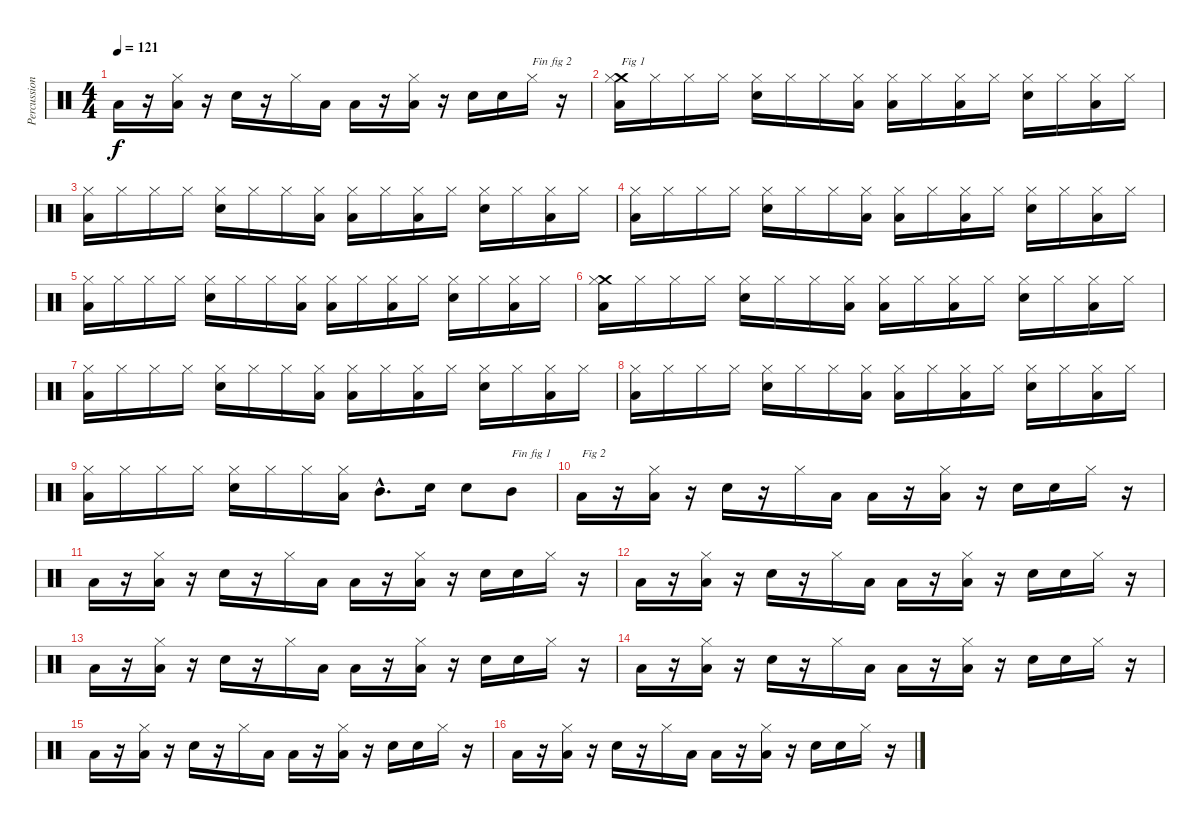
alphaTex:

\track ("Percussions" "Percussion") {instrument percussion}
\staff {score}
\articulation defaults
\ts (4 4)
\tempo 121
\clef neutral
\ks c "Low Floor Tom (hit)".16{dy f}
r.16 ("Low Floor Tom (hit)" "Hi-Hat (closed)").16 r.16 "Electric Snare (hit)".16 r.16 "Hi-Hat (closed)".16 "Low Floor Tom (hit)".16 "Low Floor Tom (hit)".16 r.16 ("Low Floor Tom (hit)" "Hi-Hat (closed)").16 r.16 "Electric Snare (hit)".16 "Electric Snare (hit)".16 "Hi-Hat (closed)".16{txt "Fin fig 2"} r.16 |
("Low Floor Tom (hit)" "Crash medium (hit)" "Hi-Hat (closed)").16{txt "Fig 1"} "Hi-Hat (closed)".16 "Hi-Hat (closed)".16 "Hi-Hat (closed)".16 ("Electric Snare (hit)" "Hi-Hat (closed)").16 "Hi-Hat (closed)".16 "Hi-Hat (closed)".16 ("Low Floor Tom (hit)" "Hi-Hat (closed)").16 ("Low Floor Tom (hit)" "Hi-Hat (closed)").16 "Hi-Hat (closed)".16 ("Low Floor Tom (hit)" "Hi-Hat (closed)").16 "Hi-Hat (closed)".16 ("Electric Snare (hit)" "Hi-Hat (closed)").16 "Hi-Hat (closed)".16 ("Low Floor Tom (hit)" "Hi-Hat (closed)").16 "Hi-Hat (closed)".16 |
("Low Floor Tom (hit)" "Hi-Hat (closed)").16 "Hi-Hat (closed)".16 "Hi-Hat (closed)".16 "Hi-Hat (closed)".16 ("Electric Snare (hit)" "Hi-Hat (closed)").16 "Hi-Hat (closed)".16 "Hi-Hat (closed)".16 ("Low Floor Tom (hit)" "Hi-Hat (closed)").16 ("Low Floor Tom (hit)" "Hi-Hat (closed)").16 "Hi-Hat (closed)".16 ("Low Floor Tom (hit)" "Hi-Hat (closed)").16 "Hi-Hat (closed)".16 ("Electric Snare (hit)" "Hi-Hat (closed)").16 "Hi-Hat (closed)".16 ("Low Floor Tom (hit)" "Hi-Hat (closed)").16 "Hi-Hat (closed)".16 |
("Low Floor Tom (hit)" "Hi-Hat (closed)").16 "Hi-Hat (closed)".16 "Hi-Hat (closed)".16 "Hi-Hat (closed)".16 ("Electric Snare (hit)" "Hi-Hat (closed)").16 "Hi-Hat (closed)".16 "Hi-Hat (closed)".16 ("Low Floor Tom (hit)" "Hi-Hat (closed)").16 ("Low Floor Tom (hit)" "Hi-Hat (closed)").16 "Hi-Hat (closed)".16 ("Low Floor Tom (hit)" "Hi-Hat (closed)").16 "Hi-Hat (closed)".16 ("Electric Snare (hit)" "Hi-Hat (closed)").16 "Hi-Hat (closed)".16 ("Low Floor Tom (hit)" "Hi-Hat (closed)").16 "Hi-Hat (closed)".16 |
("Low Floor Tom (hit)" "Hi-Hat (closed)").16 "Hi-Hat (closed)".16 "Hi-Hat (closed)".16 "Hi-Hat (closed)".16 ("Electric Snare (hit)" "Hi-Hat (closed)").16 "Hi-Hat (closed)".16 "Hi-Hat (closed)".16 ("Low Floor Tom (hit)" "Hi-Hat (closed)").16 ("Low Floor Tom (hit)" "Hi-Hat (closed)").16 "Hi-Hat (closed)".16 ("Low Floor Tom (hit)" "Hi-Hat (closed)").16 "Hi-Hat (closed)".16 ("Electric Snare (hit)" "Hi-Hat (closed)").16 "Hi-Hat (closed)".16 ("Low Floor Tom (hit)" "Hi-Hat (closed)").16 "Hi-Hat (closed)".16 |
("Low Floor Tom (hit)" "Crash medium (hit)" "Hi-Hat (closed)").16 "Hi-Hat (closed)".16 "Hi-Hat (closed)".16 "Hi-Hat (closed)".16 ("Electric Snare (hit)" "Hi-Hat (closed)").16 "Hi-Hat (closed)".16 "Hi-Hat (closed)".16 ("Low Floor Tom (hit)" "Hi-Hat (closed)").16 ("Low Floor Tom (hit)" "Hi-Hat (closed)").16 "Hi-Hat (closed)".16 ("Low Floor Tom (hit)" "Hi-Hat (closed)").16 "Hi-Hat (closed)".16 ("Electric Snare (hit)" "Hi-Hat (closed)").16 "Hi-Hat (closed)".16 ("Low Floor Tom (hit)" "Hi-Hat (closed)").16 "Hi-Hat (closed)".16 |
("Low Floor Tom (hit)" "Hi-Hat (closed)").16 "Hi-Hat (closed)".16 "Hi-Hat (closed)".16 "Hi-Hat (closed)".16 ("Electric Snare (hit)" "Hi-Hat (closed)").16 "Hi-Hat (closed)".16 "Hi-Hat (closed)".16 ("Low Floor Tom (hit)" "Hi-Hat (closed)").16 ("Low Floor Tom (hit)" "Hi-Hat (closed)").16 "Hi-Hat (closed)".16 ("Low Floor Tom (hit)" "Hi-Hat (closed)").16 "Hi-Hat (closed)".16 ("Electric Snare (hit)" "Hi-Hat (closed)").16 "Hi-Hat (closed)".16 ("Low Floor Tom (hit)" "Hi-Hat (closed)").16 "Hi-Hat (closed)".16 |
("Low Floor Tom (hit)" "Hi-Hat (closed)").16 "Hi-Hat (closed)".16 "Hi-Hat (closed)".16 "Hi-Hat (closed)".16 ("Electric Snare (hit)" "Hi-Hat (closed)").16 "Hi-Hat (closed)".16 "Hi-Hat (closed)".16 ("Low Floor Tom (hit)" "Hi-Hat (closed)").16 ("Low Floor Tom (hit)" "Hi-Hat (closed)").16 "Hi-Hat (closed)".16 ("Low Floor Tom (hit)" "Hi-Hat (closed)").16 "Hi-Hat (closed)".16 ("Electric Snare (hit)" "Hi-Hat (closed)").16 "Hi-Hat (closed)".16 ("Low Floor Tom (hit)" "Hi-Hat (closed)").16 "Hi-Hat (closed)".16 |
("Low Floor Tom (hit)" "Hi-Hat (closed)").16 "Hi-Hat (closed)".16 "Hi-Hat (closed)".16 "Hi-Hat (closed)".16 ("Electric Snare (hit)" "Hi-Hat (closed)").16 "Hi-Hat (closed)".16 "Hi-Hat (closed)".16 ("Low Floor Tom (hit)" "Hi-Hat (closed)").16 "Mid Tom (hit)"{hac}.8{d} "Electric Snare (hit)".16 "Electric Snare (hit)".8 "Mid Tom (hit)".8{txt "Fin fig 1"} |
"Low Floor Tom (hit)".16{txt "Fig 2"} r.16 ("Low Floor Tom (hit)" "Hi-Hat (closed)").16 r.16 "Electric Snare (hit)".16 r.16 "Hi-Hat (closed)".16 "Low Floor Tom (hit)".16 "Low Floor Tom (hit)".16 r.16 ("Low Floor Tom (hit)" "Hi-Hat (closed)").16 r.16 "Electric Snare (hit)".16 "Electric Snare (hit)".16 "Hi-Hat (closed)".16 r.16 |
"Low Floor Tom (hit)".16 r.16 ("Low Floor Tom (hit)" "Hi-Hat (closed)").16 r.16 "Electric Snare (hit)".16 r.16 "Hi-Hat (closed)".16 "Low Floor Tom (hit)".16 "Low Floor Tom (hit)".16 r.16 ("Low Floor Tom (hit)" "Hi-Hat (closed)").16 r.16 "Electric Snare (hit)".16 "Electric Snare (hit)".16 "Hi-Hat (closed)".16 r.16 |
"Low Floor Tom (hit)".16 r.16 ("Low Floor Tom (hit)" "Hi-Hat (closed)").16 r.16 "Electric Snare (hit)".16 r.16 "Hi-Hat (closed)".16 "Low Floor Tom (hit)".16 "Low Floor Tom (hit)".16 r.16 ("Low Floor Tom (hit)" "Hi-Hat (closed)").16 r.16 "Electric Snare (hit)".16 "Electric Snare (hit)".16 "Hi-Hat (closed)".16 r.16 |
"Low Floor Tom (hit)".16 r.16 ("Low Floor Tom (hit)" "Hi-Hat (closed)").16 r.16 "Electric Snare (hit)".16 r.16 "Hi-Hat (closed)".16 "Low Floor Tom (hit)".16 "Low Floor Tom (hit)".16 r.16 ("Low Floor Tom (hit)" "Hi-Hat (closed)").16 r.16 "Electric Snare (hit)".16 "Electric Snare (hit)".16 "Hi-Hat (closed)".16 r.16 |
"Low Floor Tom (hit)".16 r.16 ("Low Floor Tom (hit)" "Hi-Hat (closed)").16 r.16 "Electric Snare (hit)".16 r.16 "Hi-Hat (closed)".16 "Low Floor Tom (hit)".16 "Low Floor Tom (hit)".16 r.16 ("Low Floor Tom (hit)" "Hi-Hat (closed)").16 r.16 "Electric Snare (hit)".16 "Electric Snare (hit)".16 "Hi-Hat (closed)".16 r.16 |
"Low Floor Tom (hit)".16 r.16 ("Low Floor Tom (hit)" "Hi-Hat (closed)").16 r.16 "Electric Snare (hit)".16 r.16 "Hi-Hat (closed)".16 "Low Floor Tom (hit)".16 "Low Floor Tom (hit)".16 r.16 ("Low Floor Tom (hit)" "Hi-Hat (closed)").16 r.16 "Electric Snare (hit)".16 "Electric Snare (hit)".16 "Hi-Hat (closed)".16 r.16 |
"Low Floor Tom (hit)".16 r.16 ("Low Floor Tom (hit)" "Hi-Hat (closed)").16 r.16 "Electric Snare (hit)".16 r.16 "Hi-Hat (closed)".16 "Low Floor Tom (hit)".16 "Low Floor Tom (hit)".16 r.16 ("Low Floor Tom (hit)" "Hi-Hat (closed)").16 r.16 "Electric Snare (hit)".16 "Electric Snare (hit)".16 "Hi-Hat (closed)".16 r.16
